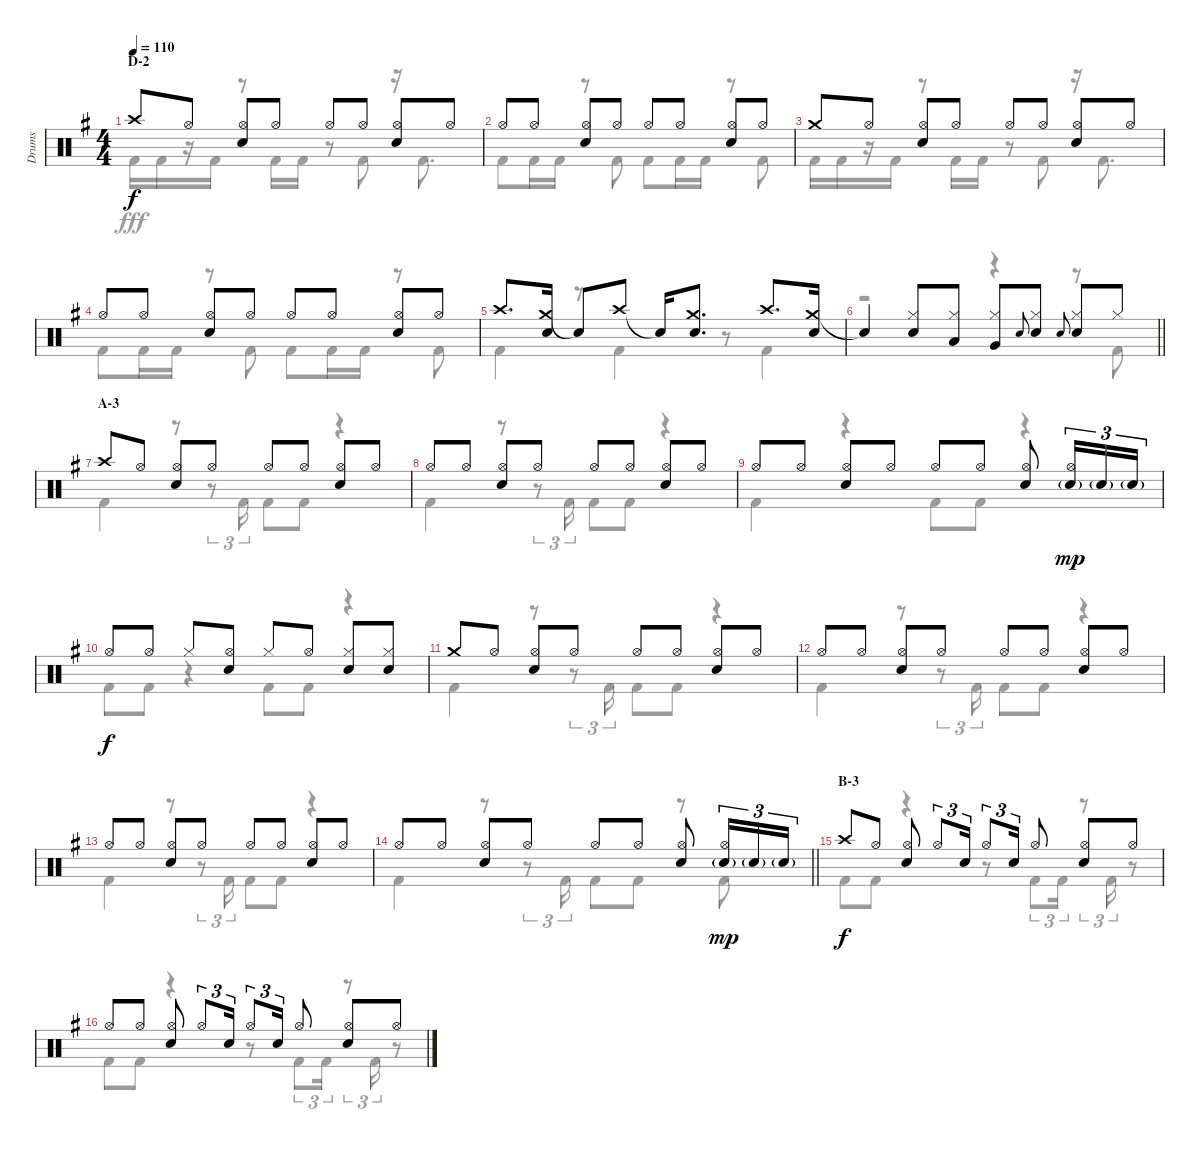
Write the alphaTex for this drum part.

\track ("Drums" "Drums") {instrument percussion}
\staff {score}
\articulation defaults
\voice
\ts (4 4)
\section ("" "D-2")
\tempo 110
\clef neutral
\ks g "Crash high (hit)".8{dy f} "Hi-Hat (open)".8
("Hi-Hat (open)" "Snare (hit) 2").8 "Hi-Hat (open)".8 "Hi-Hat (open)".8 "Hi-Hat (open)".8 ("Hi-Hat (open)" "Snare (hit) 2").8 "Hi-Hat (open)".8 |
"Hi-Hat (open)".8 "Hi-Hat (open)".8 ("Hi-Hat (open)" "Snare (hit) 2").8 "Hi-Hat (open)".8 "Hi-Hat (open)".8 "Hi-Hat (open)".8 ("Hi-Hat (open)" "Snare (hit) 2").8 "Hi-Hat (open)".8 |
"Crash medium (hit)".8 "Hi-Hat (open)".8 ("Hi-Hat (open)" "Snare (hit) 2").8 "Hi-Hat (open)".8 "Hi-Hat (open)".8 "Hi-Hat (open)".8 ("Hi-Hat (open)" "Snare (hit) 2").8 "Hi-Hat (open)".8 |
"Hi-Hat (open)".8 "Hi-Hat (open)".8 ("Hi-Hat (open)" "Snare (hit) 2").8 "Hi-Hat (open)".8 "Hi-Hat (open)".8 "Hi-Hat (open)".8 ("Hi-Hat (open)" "Snare (hit) 2").8 "Hi-Hat (open)".8 |
"Crash high (hit)".8{d} ("Crash medium (hit)" "Snare (hit) 2").16 "Snare (hit)"{t}.8 "Crash high (hit)".8 "Snare (hit)"{t}.16 ("Crash medium (hit)" "Snare (hit) 2").8{d} "Crash high (hit)".8{d} ("Crash medium (hit)" "Snare (hit) 2").16 |
\barLineRight lightlight "Snare (hit)"{t}.4
("Hi-Hat (closed)" "Snare (hit) 2").8 ("Hi-Hat (closed)" "Low Tom (hit)").8 ("Hi-Hat (closed)" "Very Low Tom (hit)").8 "Snare (hit) 2".8{gr onbeat} ("Hi-Hat (closed)" "Snare (hit) 2").8 "Snare (hit) 2".8{gr onbeat} ("Hi-Hat (closed)" "Snare (hit) 2").8 "Hi-Hat (closed)".8 |
\section ("" "A-3")
"Crash high (hit)".8 "Hi-Hat (open)".8 ("Hi-Hat (open)" "Snare (hit) 2").8 "Hi-Hat (open)".8 "Hi-Hat (open)".8 "Hi-Hat (open)".8 ("Hi-Hat (open)" "Snare (hit) 2").8 "Hi-Hat (open)".8 |
"Hi-Hat (open)".8 "Hi-Hat (open)".8 ("Hi-Hat (open)" "Snare (hit) 2").8 "Hi-Hat (open)".8 "Hi-Hat (open)".8 "Hi-Hat (open)".8 ("Hi-Hat (open)" "Snare (hit) 2").8 "Hi-Hat (open)".8 |
"Hi-Hat (open)".8 "Hi-Hat (open)".8 ("Hi-Hat (open)" "Snare (hit) 2").8 "Hi-Hat (open)".8 "Hi-Hat (open)".8 "Hi-Hat (open)".8 ("Hi-Hat (open)" "Snare (hit) 2").8 ("Hi-Hat (open)" "Snare (hit) 2"{g}).16{tu (3 2) dy mp} "Snare (hit) 2"{g}.16{tu (3 2)} "Snare (hit) 2"{g}.16{tu (3 2)} |
"Hi-Hat (open)".8{dy f} "Hi-Hat (open)".8 "Hi-Hat (closed)".8 ("Hi-Hat (open)" "Snare (hit) 2").8 "Hi-Hat (closed)".8 "Hi-Hat (open)".8 ("Hi-Hat (closed)" "Snare (hit) 2").8 ("Hi-Hat (closed)" "Snare (hit) 2").8 |
"Crash medium (hit)".8 "Hi-Hat (open)".8 ("Hi-Hat (open)" "Snare (hit) 2").8 "Hi-Hat (open)".8 "Hi-Hat (open)".8 "Hi-Hat (open)".8 ("Hi-Hat (open)" "Snare (hit) 2").8 "Hi-Hat (open)".8 |
"Hi-Hat (open)".8 "Hi-Hat (open)".8 ("Hi-Hat (open)" "Snare (hit) 2").8 "Hi-Hat (open)".8 "Hi-Hat (open)".8 "Hi-Hat (open)".8 ("Hi-Hat (open)" "Snare (hit) 2").8 "Hi-Hat (open)".8 |
"Hi-Hat (open)".8 "Hi-Hat (open)".8 ("Hi-Hat (open)" "Snare (hit) 2").8 "Hi-Hat (open)".8 "Hi-Hat (open)".8 "Hi-Hat (open)".8 ("Hi-Hat (open)" "Snare (hit) 2").8 "Hi-Hat (open)".8 |
\barLineRight lightlight "Hi-Hat (open)".8 "Hi-Hat (open)".8
("Hi-Hat (open)" "Snare (hit) 2").8 "Hi-Hat (open)".8 "Hi-Hat (open)".8 "Hi-Hat (open)".8 ("Hi-Hat (open)" "Snare (hit) 2").8 ("Hi-Hat (open)" "Snare (hit) 2"{g}).16{tu (3 2) dy mp} "Snare (hit) 2"{g}.16{tu (3 2)} "Snare (hit) 2"{g}.16{tu (3 2)} |
\section ("" "B-3")
"Crash high (hit)".8{dy f} "Hi-Hat (open)".8 ("Hi-Hat (open)" "Snare (hit) 2").8 "Hi-Hat (open)".8{tu (3 2)} "Snare (hit) 2".16{tu (3 2)} "Hi-Hat (open)".8{tu (3 2)} "Snare (hit) 2".16{tu (3 2)} "Hi-Hat (open)".8 ("Hi-Hat (open)" "Snare (hit) 2").8 "Hi-Hat (open)".8 |
"Hi-Hat (open)".8 "Hi-Hat (open)".8 ("Hi-Hat (open)" "Snare (hit) 2").8 "Hi-Hat (open)".8{tu (3 2)} "Snare (hit) 2".16{tu (3 2)} "Hi-Hat (open)".8{tu (3 2)} "Snare (hit) 2".16{tu (3 2)} "Hi-Hat (open)".8 ("Hi-Hat (open)" "Snare (hit) 2").8 "Hi-Hat (open)".8
\voice
\clef neutral
\ottava regular
\simile none
\ks g "Kick (hit) 2".16{dy fff} "Kick (hit) 2".16
r.16 "Kick (hit) 2".16 r.8 "Kick (hit) 2".16 "Kick (hit) 2".16 r.8 "Kick (hit) 2".8 r.16 "Kick (hit) 2".8{d} |
"Kick (hit) 2".8 "Kick (hit) 2".16 "Kick (hit) 2".16 r.8 "Kick (hit) 2".8 "Kick (hit) 2".8 "Kick (hit) 2".16 "Kick (hit) 2".16 r.8 "Kick (hit) 2".8 |
"Kick (hit) 2".16 "Kick (hit) 2".16 r.16 "Kick (hit) 2".16 r.8 "Kick (hit) 2".16 "Kick (hit) 2".16 r.8 "Kick (hit) 2".8 r.16 "Kick (hit) 2".8{d} |
"Kick (hit) 2".8 "Kick (hit) 2".16 "Kick (hit) 2".16 r.8 "Kick (hit) 2".8 "Kick (hit) 2".8 "Kick (hit) 2".16 "Kick (hit) 2".16 r.8 "Kick (hit) 2".8 |
"Kick (hit) 2".4 r.8 "Kick (hit) 2".4 r.8 "Kick (hit) 2".4 |
\barLineRight lightlight
r.2 r.4 r.8 "Kick (hit) 2".8 |
"Kick (hit) 2".4 r.8 r.8{tu (3 2)} "Kick (hit) 2".16{tu (3 2)} "Kick (hit) 2".8 "Kick (hit) 2".8 r.4 |
"Kick (hit) 2".4 r.8 r.8{tu (3 2)} "Kick (hit) 2".16{tu (3 2)} "Kick (hit) 2".8 "Kick (hit) 2".8 r.4 |
"Kick (hit) 2".4 r.4 "Kick (hit) 2".8 "Kick (hit) 2".8 r.4 |
"Kick (hit) 2".8 "Kick (hit) 2".8 r.4 "Kick (hit) 2".8 "Kick (hit) 2".8 r.4 |
"Kick (hit) 2".4 r.8 r.8{tu (3 2)} "Kick (hit) 2".16{tu (3 2)} "Kick (hit) 2".8 "Kick (hit) 2".8 r.4 |
"Kick (hit) 2".4 r.8 r.8{tu (3 2)} "Kick (hit) 2".16{tu (3 2)} "Kick (hit) 2".8 "Kick (hit) 2".8 r.4 |
"Kick (hit) 2".4 r.8 r.8{tu (3 2)} "Kick (hit) 2".16{tu (3 2)} "Kick (hit) 2".8 "Kick (hit) 2".8 r.4 |
\barLineRight lightlight "Kick (hit) 2".4
r.8 r.8{tu (3 2)} "Kick (hit) 2".16{tu (3 2)} "Kick (hit) 2".8 "Kick (hit) 2".8 r.8 "Kick (hit) 2".8 |
"Kick (hit) 2".8 "Kick (hit) 2".8 r.4 r.8 "Kick (hit) 2".8{tu (3 2)} "Kick (hit) 2".16{tu (3 2)} r.8{tu (3 2)} "Kick (hit) 2".16{tu (3 2)} r.8 |
"Kick (hit) 2".8 "Kick (hit) 2".8 r.4 r.8 "Kick (hit) 2".8{tu (3 2)} "Kick (hit) 2".16{tu (3 2)} r.8{tu (3 2)} "Kick (hit) 2".16{tu (3 2)} r.8
